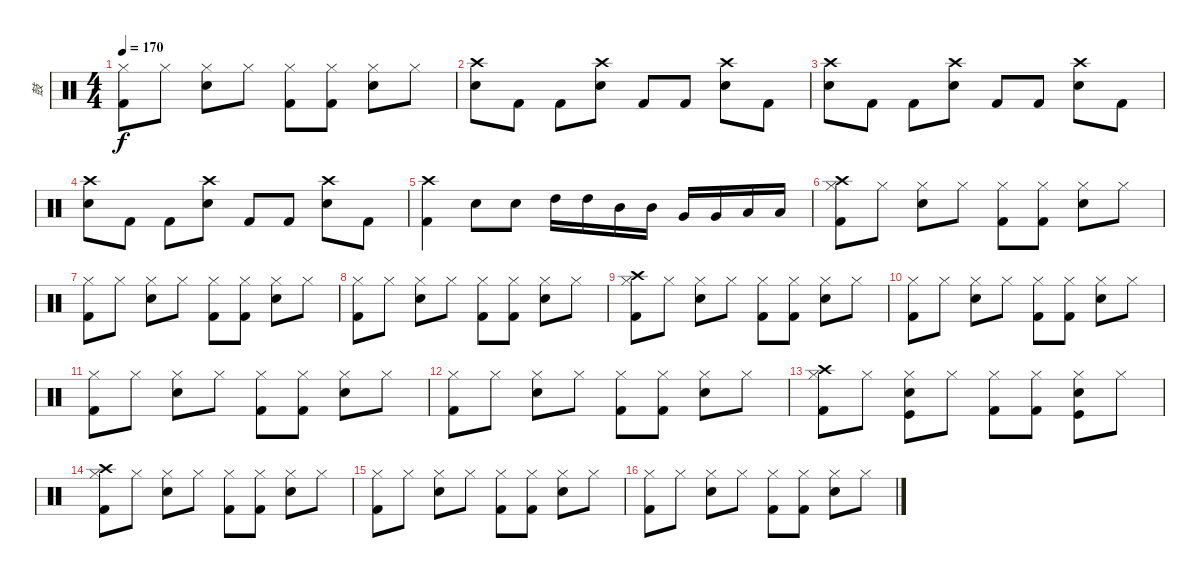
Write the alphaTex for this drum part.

\track ("鼓" "鼓") {instrument percussion}
\staff {score}
\articulation defaults
\ts (4 4)
\tempo 170
\clef neutral
\ks c
("Hi-Hat (closed)" "Kick (hit) 2").8{dy f} "Hi-Hat (closed)".8 ("Hi-Hat (closed)" "Electric Snare (hit)").8 "Hi-Hat (closed)".8 ("Hi-Hat (closed)" "Kick (hit) 2").8 ("Hi-Hat (closed)" "Kick (hit) 2").8 ("Hi-Hat (closed)" "Electric Snare (hit)").8 "Hi-Hat (closed)".8 |
("Crash high (hit)" "Electric Snare (hit)").8 "Kick (hit) 2".8 "Kick (hit) 2".8 ("Crash high (hit)" "Electric Snare (hit)").8 "Kick (hit) 2".8 "Kick (hit) 2".8 ("Crash high (hit)" "Electric Snare (hit)").8 "Kick (hit) 2".8 |
("Crash high (hit)" "Electric Snare (hit)").8 "Kick (hit) 2".8 "Kick (hit) 2".8 ("Crash high (hit)" "Electric Snare (hit)").8 "Kick (hit) 2".8 "Kick (hit) 2".8 ("Crash high (hit)" "Electric Snare (hit)").8 "Kick (hit) 2".8 |
("Crash high (hit)" "Electric Snare (hit)").8 "Kick (hit) 2".8 "Kick (hit) 2".8 ("Crash high (hit)" "Electric Snare (hit)").8 "Kick (hit) 2".8 "Kick (hit) 2".8 ("Crash high (hit)" "Electric Snare (hit)").8 "Kick (hit) 2".8 |
("Crash high (hit)" "Kick (hit) 2").4 "Electric Snare (hit)".8 "Electric Snare (hit)".8 "High Tom (hit)".16 "High Tom (hit)".16 "Mid Tom (hit)".16 "Mid Tom (hit)".16 "Very Low Tom (hit)".16 "Very Low Tom (hit)".16 "Low Floor Tom (hit)".16 "Low Floor Tom (hit)".16 |
("Crash high (hit)" "Hi-Hat (closed)" "Kick (hit) 2").8 "Hi-Hat (closed)".8 ("Hi-Hat (closed)" "Electric Snare (hit)").8 "Hi-Hat (closed)".8 ("Hi-Hat (closed)" "Kick (hit) 2").8 ("Hi-Hat (closed)" "Kick (hit) 2").8 ("Hi-Hat (closed)" "Electric Snare (hit)").8 "Hi-Hat (closed)".8 |
("Hi-Hat (closed)" "Kick (hit) 2").8 "Hi-Hat (closed)".8 ("Hi-Hat (closed)" "Electric Snare (hit)").8 "Hi-Hat (closed)".8 ("Hi-Hat (closed)" "Kick (hit) 2").8 ("Hi-Hat (closed)" "Kick (hit) 2").8 ("Hi-Hat (closed)" "Electric Snare (hit)").8 "Hi-Hat (closed)".8 |
("Hi-Hat (closed)" "Kick (hit) 2").8 "Hi-Hat (closed)".8 ("Hi-Hat (closed)" "Electric Snare (hit)").8 "Hi-Hat (closed)".8 ("Hi-Hat (closed)" "Kick (hit) 2").8 ("Hi-Hat (closed)" "Kick (hit) 2").8 ("Hi-Hat (closed)" "Electric Snare (hit)").8 "Hi-Hat (closed)".8 |
("Crash high (hit)" "Hi-Hat (closed)" "Kick (hit) 2").8 "Hi-Hat (closed)".8 ("Hi-Hat (closed)" "Electric Snare (hit)").8 "Hi-Hat (closed)".8 ("Hi-Hat (closed)" "Kick (hit) 2").8 ("Hi-Hat (closed)" "Kick (hit) 2").8 ("Hi-Hat (closed)" "Electric Snare (hit)").8 "Hi-Hat (closed)".8 |
("Hi-Hat (closed)" "Kick (hit) 2").8 "Hi-Hat (closed)".8 ("Hi-Hat (closed)" "Electric Snare (hit)").8 "Hi-Hat (closed)".8 ("Hi-Hat (closed)" "Kick (hit) 2").8 ("Hi-Hat (closed)" "Kick (hit) 2").8 ("Hi-Hat (closed)" "Electric Snare (hit)").8 "Hi-Hat (closed)".8 |
("Hi-Hat (closed)" "Kick (hit) 2").8 "Hi-Hat (closed)".8 ("Hi-Hat (closed)" "Electric Snare (hit)").8 "Hi-Hat (closed)".8 ("Hi-Hat (closed)" "Kick (hit) 2").8 ("Hi-Hat (closed)" "Kick (hit) 2").8 ("Hi-Hat (closed)" "Electric Snare (hit)").8 "Hi-Hat (closed)".8 |
("Hi-Hat (closed)" "Kick (hit) 2").8 "Hi-Hat (closed)".8 ("Hi-Hat (closed)" "Electric Snare (hit)").8 "Hi-Hat (closed)".8 ("Hi-Hat (closed)" "Kick (hit) 2").8 ("Hi-Hat (closed)" "Kick (hit) 2").8 ("Hi-Hat (closed)" "Electric Snare (hit)").8 "Hi-Hat (closed)".8 |
("Crash high (hit)" "Hi-Hat (closed)" "Kick (hit) 2").8 "Hi-Hat (closed)".8 ("Hi-Hat (closed)" "Electric Snare (hit)" "Kick (hit)").8 "Hi-Hat (closed)".8 ("Hi-Hat (closed)" "Kick (hit) 2").8 ("Hi-Hat (closed)" "Kick (hit) 2").8 ("Hi-Hat (closed)" "Electric Snare (hit)" "Kick (hit)").8 "Hi-Hat (closed)".8 |
("Crash high (hit)" "Hi-Hat (closed)" "Kick (hit) 2").8 "Hi-Hat (closed)".8 ("Hi-Hat (closed)" "Electric Snare (hit)").8 "Hi-Hat (closed)".8 ("Hi-Hat (closed)" "Kick (hit) 2").8 ("Hi-Hat (closed)" "Kick (hit) 2").8 ("Hi-Hat (closed)" "Electric Snare (hit)").8 "Hi-Hat (closed)".8 |
("Hi-Hat (closed)" "Kick (hit) 2").8 "Hi-Hat (closed)".8 ("Hi-Hat (closed)" "Electric Snare (hit)").8 "Hi-Hat (closed)".8 ("Hi-Hat (closed)" "Kick (hit) 2").8 ("Hi-Hat (closed)" "Kick (hit) 2").8 ("Hi-Hat (closed)" "Electric Snare (hit)").8 "Hi-Hat (closed)".8 |
("Hi-Hat (closed)" "Kick (hit) 2").8 "Hi-Hat (closed)".8 ("Hi-Hat (closed)" "Electric Snare (hit)").8 "Hi-Hat (closed)".8 ("Hi-Hat (closed)" "Kick (hit) 2").8 ("Hi-Hat (closed)" "Kick (hit) 2").8 ("Hi-Hat (closed)" "Electric Snare (hit)").8 "Hi-Hat (closed)".8
